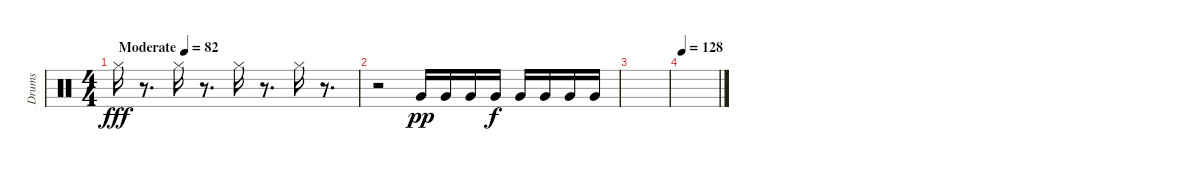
\track ("Drums" "Drums") {instrument percussion}
\staff {score}
\articulation defaults
\ts (4 4)
\tempo (82 "Moderate")
\clef neutral
\ks c "Hi-Hat (closed)".16{dy fff}
r.8{d} "Hi-Hat (closed)".16 r.8{d} "Hi-Hat (closed)".16 r.8{d} "Hi-Hat (closed)".16 r.8{d} |
r.2 "Very Low Tom (hit)".16{dy pp} "Very Low Tom (hit)".16 "Very Low Tom (hit)".16 "Very Low Tom (hit)".16{dy f} "Very Low Tom (hit)".16 "Very Low Tom (hit)".16 "Very Low Tom (hit)".16 "Very Low Tom (hit)".16 |
|
\tempo 128
